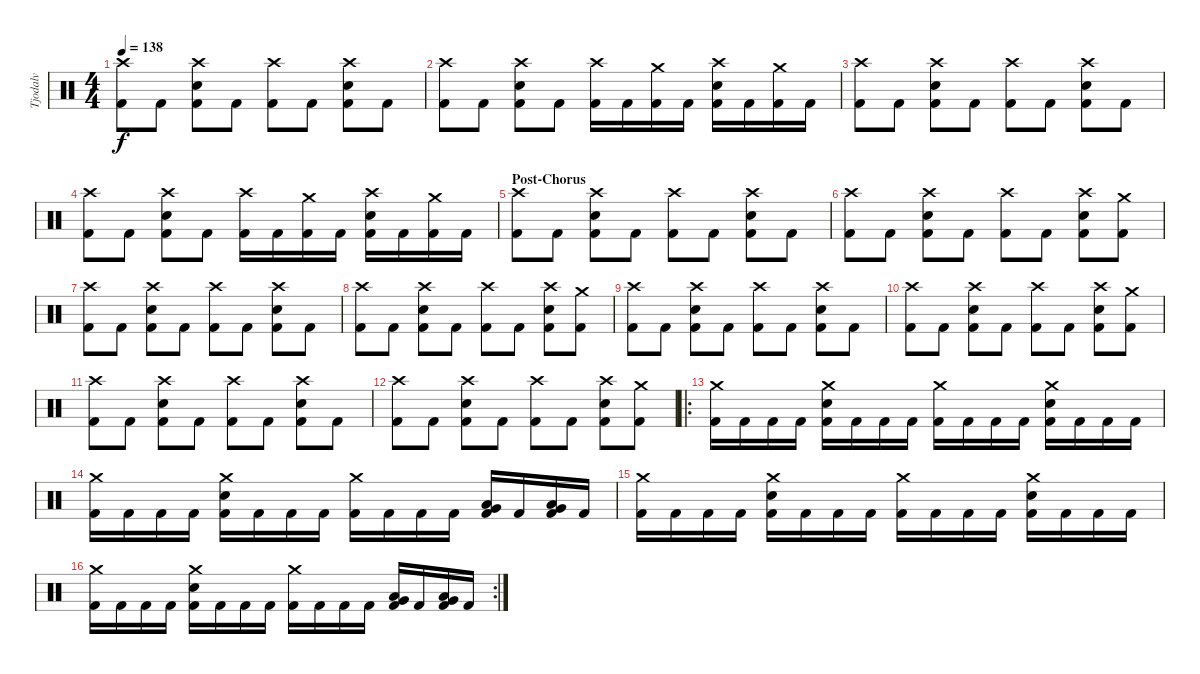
\track ("Tjodalv" "Tjodalv") {instrument percussion}
\staff {score}
\articulation defaults
\ts (4 4)
\tempo 138
\clef neutral
\ks c
("Crash high (hit)" "Kick (hit) 2").8{dy f} "Kick (hit) 2".8 ("Crash high (hit)" "Snare (hit) 2" "Kick (hit) 2").8 "Kick (hit) 2".8 ("Crash high (hit)" "Kick (hit) 2").8 "Kick (hit) 2".8 ("Crash high (hit)" "Snare (hit) 2" "Kick (hit) 2").8 "Kick (hit) 2".8 |
("Crash high (hit)" "Kick (hit) 2").8 "Kick (hit) 2".8 ("Crash high (hit)" "Snare (hit) 2" "Kick (hit) 2").8 "Kick (hit) 2".8 ("Crash high (hit)" "Kick (hit) 2").16 "Kick (hit) 2".16 ("Crash medium (hit)" "Kick (hit) 2").16 "Kick (hit) 2".16 ("Crash high (hit)" "Snare (hit) 2" "Kick (hit) 2").16 "Kick (hit) 2".16 ("Crash medium (hit)" "Kick (hit) 2").16 "Kick (hit) 2".16 |
("Crash high (hit)" "Kick (hit) 2").8 "Kick (hit) 2".8 ("Crash high (hit)" "Snare (hit) 2" "Kick (hit) 2").8 "Kick (hit) 2".8 ("Crash high (hit)" "Kick (hit) 2").8 "Kick (hit) 2".8 ("Crash high (hit)" "Snare (hit) 2" "Kick (hit) 2").8 "Kick (hit) 2".8 |
("Crash high (hit)" "Kick (hit) 2").8 "Kick (hit) 2".8 ("Crash high (hit)" "Snare (hit) 2" "Kick (hit) 2").8 "Kick (hit) 2".8 ("Crash high (hit)" "Kick (hit) 2").16 "Kick (hit) 2".16 ("Crash medium (hit)" "Kick (hit) 2").16 "Kick (hit) 2".16 ("Crash high (hit)" "Snare (hit) 2" "Kick (hit) 2").16 "Kick (hit) 2".16 ("Crash medium (hit)" "Kick (hit) 2").16 "Kick (hit) 2".16 |
\section ("" "Post-Chorus")
("Crash high (hit)" "Kick (hit) 2").8 "Kick (hit) 2".8 ("Crash high (hit)" "Snare (hit) 2" "Kick (hit) 2").8 "Kick (hit) 2".8 ("Crash high (hit)" "Kick (hit) 2").8 "Kick (hit) 2".8 ("Crash high (hit)" "Snare (hit) 2" "Kick (hit) 2").8 "Kick (hit) 2".8 |
("Crash high (hit)" "Kick (hit) 2").8 "Kick (hit) 2".8 ("Crash high (hit)" "Snare (hit) 2" "Kick (hit) 2").8 "Kick (hit) 2".8 ("Crash high (hit)" "Kick (hit) 2").8 "Kick (hit) 2".8 ("Crash high (hit)" "Snare (hit) 2" "Kick (hit) 2").8 ("Crash medium (hit)" "Kick (hit) 2").8 |
("Crash high (hit)" "Kick (hit) 2").8 "Kick (hit) 2".8 ("Crash high (hit)" "Snare (hit) 2" "Kick (hit) 2").8 "Kick (hit) 2".8 ("Crash high (hit)" "Kick (hit) 2").8 "Kick (hit) 2".8 ("Crash high (hit)" "Snare (hit) 2" "Kick (hit) 2").8 "Kick (hit) 2".8 |
("Crash high (hit)" "Kick (hit) 2").8 "Kick (hit) 2".8 ("Crash high (hit)" "Snare (hit) 2" "Kick (hit) 2").8 "Kick (hit) 2".8 ("Crash high (hit)" "Kick (hit) 2").8 "Kick (hit) 2".8 ("Crash high (hit)" "Snare (hit) 2" "Kick (hit) 2").8 ("Crash medium (hit)" "Kick (hit) 2").8 |
("Crash high (hit)" "Kick (hit) 2").8 "Kick (hit) 2".8 ("Crash high (hit)" "Snare (hit) 2" "Kick (hit) 2").8 "Kick (hit) 2".8 ("Crash high (hit)" "Kick (hit) 2").8 "Kick (hit) 2".8 ("Crash high (hit)" "Snare (hit) 2" "Kick (hit) 2").8 "Kick (hit) 2".8 |
("Crash high (hit)" "Kick (hit) 2").8 "Kick (hit) 2".8 ("Crash high (hit)" "Snare (hit) 2" "Kick (hit) 2").8 "Kick (hit) 2".8 ("Crash high (hit)" "Kick (hit) 2").8 "Kick (hit) 2".8 ("Crash high (hit)" "Snare (hit) 2" "Kick (hit) 2").8 ("Crash medium (hit)" "Kick (hit) 2").8 |
("Crash high (hit)" "Kick (hit) 2").8 "Kick (hit) 2".8 ("Crash high (hit)" "Snare (hit) 2" "Kick (hit) 2").8 "Kick (hit) 2".8 ("Crash high (hit)" "Kick (hit) 2").8 "Kick (hit) 2".8 ("Crash high (hit)" "Snare (hit) 2" "Kick (hit) 2").8 "Kick (hit) 2".8 |
("Crash high (hit)" "Kick (hit) 2").8 "Kick (hit) 2".8 ("Crash high (hit)" "Snare (hit) 2" "Kick (hit) 2").8 "Kick (hit) 2".8 ("Crash high (hit)" "Kick (hit) 2").8 "Kick (hit) 2".8 ("Crash high (hit)" "Snare (hit) 2" "Kick (hit) 2").8 ("Crash medium (hit)" "Kick (hit) 2").8 |
\ro
("Crash medium (hit)" "Kick (hit) 2").16 "Kick (hit) 2".16 "Kick (hit) 2".16 "Kick (hit) 2".16 ("Crash medium (hit)" "Snare (hit) 2" "Kick (hit) 2").16 "Kick (hit) 2".16 "Kick (hit) 2".16 "Kick (hit) 2".16 ("Crash medium (hit)" "Kick (hit) 2").16 "Kick (hit) 2".16 "Kick (hit) 2".16 "Kick (hit) 2".16 ("Crash medium (hit)" "Snare (hit) 2" "Kick (hit) 2").16 "Kick (hit) 2".16 "Kick (hit) 2".16 "Kick (hit) 2".16 |
("Crash medium (hit)" "Kick (hit) 2").16 "Kick (hit) 2".16 "Kick (hit) 2".16 "Kick (hit) 2".16 ("Crash medium (hit)" "Snare (hit) 2" "Kick (hit) 2").16 "Kick (hit) 2".16 "Kick (hit) 2".16 "Kick (hit) 2".16 ("Crash medium (hit)" "Kick (hit) 2").16 "Kick (hit) 2".16 "Kick (hit) 2".16 "Kick (hit) 2".16 ("Low Tom (hit)" "Very Low Tom (hit)" "Kick (hit) 2").16 "Kick (hit) 2".16 ("Low Floor Tom (hit)" "Very Low Tom (hit)" "Kick (hit) 2").16 "Kick (hit) 2".16 |
("Crash medium (hit)" "Kick (hit) 2").16 "Kick (hit) 2".16 "Kick (hit) 2".16 "Kick (hit) 2".16 ("Crash medium (hit)" "Snare (hit) 2" "Kick (hit) 2").16 "Kick (hit) 2".16 "Kick (hit) 2".16 "Kick (hit) 2".16 ("Crash medium (hit)" "Kick (hit) 2").16 "Kick (hit) 2".16 "Kick (hit) 2".16 "Kick (hit) 2".16 ("Crash medium (hit)" "Snare (hit) 2" "Kick (hit) 2").16 "Kick (hit) 2".16 "Kick (hit) 2".16 "Kick (hit) 2".16 |
\rc 2
("Crash medium (hit)" "Kick (hit) 2").16 "Kick (hit) 2".16 "Kick (hit) 2".16 "Kick (hit) 2".16 ("Crash medium (hit)" "Snare (hit) 2" "Kick (hit) 2").16 "Kick (hit) 2".16 "Kick (hit) 2".16 "Kick (hit) 2".16 ("Crash medium (hit)" "Kick (hit) 2").16 "Kick (hit) 2".16 "Kick (hit) 2".16 "Kick (hit) 2".16 ("Low Tom (hit)" "Very Low Tom (hit)" "Kick (hit) 2").16 "Kick (hit) 2".16 ("Low Floor Tom (hit)" "Very Low Tom (hit)" "Kick (hit) 2").16 "Kick (hit) 2".16
